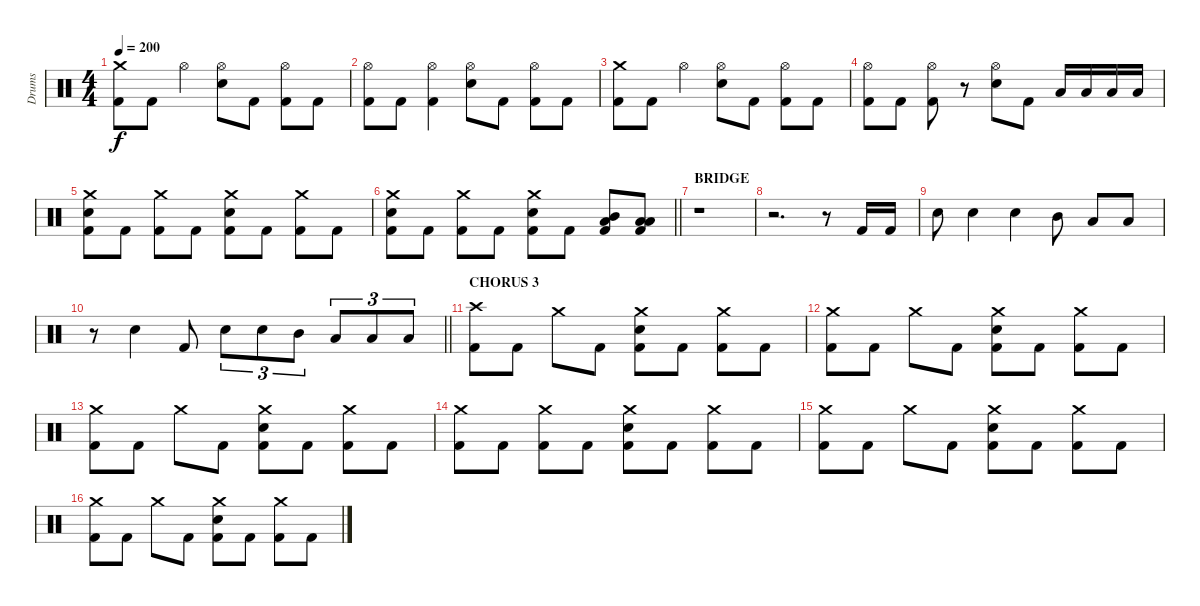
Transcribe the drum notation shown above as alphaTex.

\track ("Drums" "Drums") {instrument percussion}
\staff {score}
\articulation defaults
\ts (4 4)
\tempo 200
\clef neutral
\ks c
("Crash medium (hit)" "Kick (hit) 2").8{dy f} "Kick (hit) 2".8 "Hi-Hat (open)".4 ("Hi-Hat (open)" "Electric Snare (hit)").8 "Kick (hit) 2".8 ("Hi-Hat (open)" "Kick (hit) 2").8 "Kick (hit) 2".8 |
("Hi-Hat (open)" "Kick (hit) 2").8 "Kick (hit) 2".8 ("Hi-Hat (open)" "Kick (hit) 2").4 ("Hi-Hat (open)" "Electric Snare (hit)").8 "Kick (hit) 2".8 ("Hi-Hat (open)" "Kick (hit) 2").8 "Kick (hit) 2".8 |
("Crash medium (hit)" "Kick (hit) 2").8 "Kick (hit) 2".8 "Hi-Hat (open)".4 ("Hi-Hat (open)" "Electric Snare (hit)").8 "Kick (hit) 2".8 ("Hi-Hat (open)" "Kick (hit) 2").8 "Kick (hit) 2".8 |
("Hi-Hat (open)" "Kick (hit) 2").8 "Kick (hit) 2".8 ("Hi-Hat (open)" "Kick (hit) 2").8 r.8 ("Hi-Hat (open)" "Electric Snare (hit)").8 "Kick (hit) 2".8 "Low Tom (hit)".16 "Low Tom (hit)".16 "Low Floor Tom (hit)".16 "Low Floor Tom (hit)".16 |
("Crash medium (hit)" "Electric Snare (hit)" "Kick (hit) 2").8 "Kick (hit) 2".8 ("Crash medium (hit)" "Kick (hit) 2").8 "Kick (hit) 2".8 ("Crash medium (hit)" "Electric Snare (hit)" "Kick (hit) 2").8 "Kick (hit) 2".8 ("Crash medium (hit)" "Kick (hit) 2").8 "Kick (hit) 2".8 |
\barLineRight lightlight
("Crash medium (hit)" "Electric Snare (hit)" "Kick (hit) 2").8 "Kick (hit) 2".8 ("Crash medium (hit)" "Kick (hit) 2").8 "Kick (hit) 2".8 ("Crash medium (hit)" "Electric Snare (hit)" "Kick (hit) 2").8 "Kick (hit) 2".8 ("Mid Tom (hit)" "Low Tom (hit)" "Kick (hit) 2").8 ("Low Tom (hit)" "Low Floor Tom (hit)" "Kick (hit) 2").8 |
\section ("" "BRIDGE")
r.1 |
r.2{d} r.8 "Kick (hit) 2".16 "Kick (hit) 2".16 |
"Electric Snare (hit)".8 "Electric Snare (hit)".4 "Electric Snare (hit)".4 "Mid Tom (hit)".8 "Low Tom (hit)".8 "Low Floor Tom (hit)".8 |
\barLineRight lightlight
r.8 "Electric Snare (hit)".4 "Kick (hit) 2".8 "Electric Snare (hit)".8{tu (3 2)} "Electric Snare (hit)".8{tu (3 2)} "Mid Tom (hit)".8{tu (3 2)} "Low Tom (hit)".8{tu (3 2)} "Low Floor Tom (hit)".8{tu (3 2)} "Low Floor Tom (hit)".8{tu (3 2)} |
\section ("" "CHORUS 3")
("Crash high (hit)" "Kick (hit) 2").8 "Kick (hit) 2".8 "Crash medium (hit)".8 "Kick (hit) 2".8 ("Crash medium (hit)" "Electric Snare (hit)" "Kick (hit) 2").8 "Kick (hit) 2".8 ("Crash medium (hit)" "Kick (hit) 2").8 "Kick (hit) 2".8 |
("Crash medium (hit)" "Kick (hit) 2").8 "Kick (hit) 2".8 "Crash medium (hit)".8 "Kick (hit) 2".8 ("Crash medium (hit)" "Electric Snare (hit)" "Kick (hit) 2").8 "Kick (hit) 2".8 ("Crash medium (hit)" "Kick (hit) 2").8 "Kick (hit) 2".8 |
("Crash medium (hit)" "Kick (hit) 2").8 "Kick (hit) 2".8 "Crash medium (hit)".8 "Kick (hit) 2".8 ("Crash medium (hit)" "Electric Snare (hit)" "Kick (hit) 2").8 "Kick (hit) 2".8 ("Crash medium (hit)" "Kick (hit) 2").8 "Kick (hit) 2".8 |
("Crash medium (hit)" "Kick (hit) 2").8 "Kick (hit) 2".8 ("Crash medium (hit)" "Kick (hit) 2").8 "Kick (hit) 2".8 ("Crash medium (hit)" "Electric Snare (hit)" "Kick (hit) 2").8 "Kick (hit) 2".8 ("Crash medium (hit)" "Kick (hit) 2").8 "Kick (hit) 2".8 |
("Crash medium (hit)" "Kick (hit) 2").8 "Kick (hit) 2".8 "Crash medium (hit)".8 "Kick (hit) 2".8 ("Crash medium (hit)" "Electric Snare (hit)" "Kick (hit) 2").8 "Kick (hit) 2".8 ("Crash medium (hit)" "Kick (hit) 2").8 "Kick (hit) 2".8 |
("Crash medium (hit)" "Kick (hit) 2").8 "Kick (hit) 2".8 "Crash medium (hit)".8 "Kick (hit) 2".8 ("Crash medium (hit)" "Electric Snare (hit)" "Kick (hit) 2").8 "Kick (hit) 2".8 ("Crash medium (hit)" "Kick (hit) 2").8 "Kick (hit) 2".8
